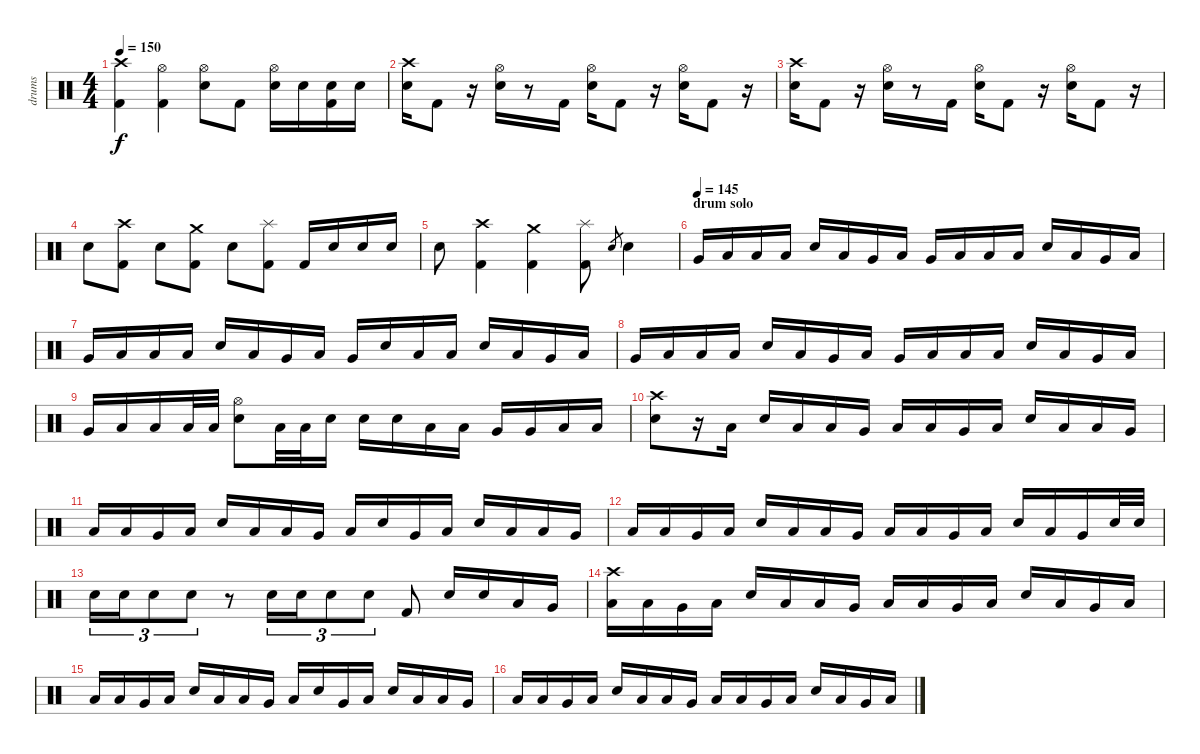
\track ("drums" "drums") {instrument percussion}
\staff {score}
\articulation defaults
\ts (4 4)
\tempo 150
\clef neutral
\ks c
("Crash high (hit)" "Kick (hit) 2").4{dy f} ("Hi-Hat (open)" "Kick (hit) 2").4 ("Hi-Hat (open)" "Electric Snare (hit)").8 "Kick (hit) 2".8 ("Hi-Hat (open)" "Electric Snare (hit)").16 "Electric Snare (hit)".16 ("Electric Snare (hit)" "Kick (hit) 2").16 "Electric Snare (hit)".16 |
("Crash high (hit)" "Electric Snare (hit)").16 "Kick (hit) 2".8 r.16 ("Hi-Hat (open)" "Electric Snare (hit)").16 r.8 "Kick (hit) 2".16 ("Hi-Hat (open)" "Electric Snare (hit)").16 "Kick (hit) 2".8 r.16 ("Hi-Hat (open)" "Electric Snare (hit)").16 "Kick (hit) 2".8 r.16 |
("Crash high (hit)" "Electric Snare (hit)").16 "Kick (hit) 2".8 r.16 ("Hi-Hat (open)" "Electric Snare (hit)").16 r.8 "Kick (hit) 2".16 ("Hi-Hat (open)" "Electric Snare (hit)").16 "Kick (hit) 2".8 r.16 ("Hi-Hat (open)" "Electric Snare (hit)").16 "Kick (hit) 2".8 r.16 |
"Electric Snare (hit)".8 ("Crash high (hit)" "Kick (hit) 2").8 "Electric Snare (hit)".8 ("Crash medium (hit)" "Kick (hit) 2").8 "Electric Snare (hit)".8 ("Splash (hit)" "Kick (hit) 2").8 "Kick (hit) 2".16 "Electric Snare (hit)".16 "Electric Snare (hit)".16 "Electric Snare (hit)".16 |
"Electric Snare (hit)".8 ("Crash high (hit)" "Kick (hit) 2").4 ("Crash medium (hit)" "Kick (hit) 2").4 ("Splash (hit)" "Kick (hit) 2").8 "Electric Snare (hit)".8{gr} "Electric Snare (hit)".4 |
\section ("" "drum solo")
\tempo (145)
"Very Low Tom (hit)".16 "Low Tom (hit)".16 "Low Floor Tom (hit)".16 "Low Tom (hit)".16 "Electric Snare (hit)".16 "Low Floor Tom (hit)".16 "Very Low Tom (hit)".16 "Low Tom (hit)".16 "Very Low Tom (hit)".16 "Low Tom (hit)".16 "Low Floor Tom (hit)".16 "Low Tom (hit)".16 "Electric Snare (hit)".16 "Low Floor Tom (hit)".16 "Very Low Tom (hit)".16 "Low Tom (hit)".16 |
"Very Low Tom (hit)".16 "Low Tom (hit)".16 "Low Floor Tom (hit)".16 "Low Tom (hit)".16 "Electric Snare (hit)".16 "Low Floor Tom (hit)".16 "Very Low Tom (hit)".16 "Low Tom (hit)".16 "Very Low Tom (hit)".16 "Electric Snare (hit)".16 "Low Floor Tom (hit)".16 "Low Tom (hit)".16 "Electric Snare (hit)".16 "Low Floor Tom (hit)".16 "Very Low Tom (hit)".16 "Low Tom (hit)".16 |
"Very Low Tom (hit)".16 "Low Tom (hit)".16 "Low Floor Tom (hit)".16 "Low Tom (hit)".16 "Electric Snare (hit)".16 "Low Floor Tom (hit)".16 "Very Low Tom (hit)".16 "Low Tom (hit)".16 "Very Low Tom (hit)".16 "Low Tom (hit)".16 "Low Floor Tom (hit)".16 "Low Tom (hit)".16 "Electric Snare (hit)".16 "Low Floor Tom (hit)".16 "Very Low Tom (hit)".16 "Low Tom (hit)".16 |
"Very Low Tom (hit)".16 "Low Tom (hit)".16 "Low Floor Tom (hit)".16 "Low Tom (hit)".32 "Low Tom (hit)".32 ("Hi-Hat (open)" "Electric Snare (hit)").8 "Low Tom (hit)".32 "Low Tom (hit)".32 "Electric Snare (hit)".16 "Electric Snare (hit)".16 "Electric Snare (hit)".16 "Low Tom (hit)".16 "Low Tom (hit)".16 "Very Low Tom (hit)".16 "Very Low Tom (hit)".16 "Low Floor Tom (hit)".16 "Low Floor Tom (hit)".16 |
("Crash high (hit)" "Electric Snare (hit)").8 r.16 "Low Floor Tom (hit)".16 "Electric Snare (hit)".16 "Low Floor Tom (hit)".16 "Low Tom (hit)".16 "Very Low Tom (hit)".16 "Low Tom (hit)".16 "Low Floor Tom (hit)".16 "Very Low Tom (hit)".16 "Low Floor Tom (hit)".16 "Electric Snare (hit)".16 "Low Floor Tom (hit)".16 "Low Tom (hit)".16 "Very Low Tom (hit)".16 |
"Low Floor Tom (hit)".16 "Low Tom (hit)".16 "Very Low Tom (hit)".16 "Low Floor Tom (hit)".16 "Electric Snare (hit)".16 "Low Floor Tom (hit)".16 "Low Tom (hit)".16 "Very Low Tom (hit)".16 "Low Tom (hit)".16 "Electric Snare (hit)".16 "Very Low Tom (hit)".16 "Low Floor Tom (hit)".16 "Electric Snare (hit)".16 "Low Floor Tom (hit)".16 "Low Tom (hit)".16 "Very Low Tom (hit)".16 |
"Low Floor Tom (hit)".16 "Low Tom (hit)".16 "Very Low Tom (hit)".16 "Low Floor Tom (hit)".16 "Electric Snare (hit)".16 "Low Floor Tom (hit)".16 "Low Tom (hit)".16 "Very Low Tom (hit)".16 "Low Tom (hit)".16 "Low Floor Tom (hit)".16 "Very Low Tom (hit)".16 "Low Floor Tom (hit)".16 "Electric Snare (hit)".16 "Low Floor Tom (hit)".16 "Very Low Tom (hit)".16 "Electric Snare (hit)".32 "Electric Snare (hit)".32 |
"Electric Snare (hit)".16{tu (3 2)} "Electric Snare (hit)".16{tu (3 2)} "Electric Snare (hit)".8{tu (3 2)} "Electric Snare (hit)".8{tu (3 2)} r.8 "Electric Snare (hit)".16{tu (3 2)} "Electric Snare (hit)".16{tu (3 2)} "Electric Snare (hit)".8{tu (3 2)} "Electric Snare (hit)".8{tu (3 2)} "Kick (hit) 2".8 "Electric Snare (hit)".16 "Electric Snare (hit)".16 "Low Tom (hit)".16 "Very Low Tom (hit)".16 |
("Crash high (hit)" "Low Floor Tom (hit)").16 "Low Tom (hit)".16 "Very Low Tom (hit)".16 "Low Floor Tom (hit)".16 "Electric Snare (hit)".16 "Low Floor Tom (hit)".16 "Low Tom (hit)".16 "Very Low Tom (hit)".16 "Low Tom (hit)".16 "Low Floor Tom (hit)".16 "Very Low Tom (hit)".16 "Low Floor Tom (hit)".16 "Electric Snare (hit)".16 "Low Floor Tom (hit)".16 "Very Low Tom (hit)".16 "Low Tom (hit)".16 |
"Low Floor Tom (hit)".16 "Low Tom (hit)".16 "Very Low Tom (hit)".16 "Low Floor Tom (hit)".16 "Electric Snare (hit)".16 "Low Floor Tom (hit)".16 "Low Tom (hit)".16 "Very Low Tom (hit)".16 "Low Tom (hit)".16 "Electric Snare (hit)".16 "Very Low Tom (hit)".16 "Low Floor Tom (hit)".16 "Electric Snare (hit)".16 "Low Floor Tom (hit)".16 "Low Tom (hit)".16 "Very Low Tom (hit)".16 |
"Low Floor Tom (hit)".16 "Low Tom (hit)".16 "Very Low Tom (hit)".16 "Low Floor Tom (hit)".16 "Electric Snare (hit)".16 "Low Floor Tom (hit)".16 "Low Tom (hit)".16 "Very Low Tom (hit)".16 "Low Tom (hit)".16 "Low Floor Tom (hit)".16 "Very Low Tom (hit)".16 "Low Floor Tom (hit)".16 "Electric Snare (hit)".16 "Low Floor Tom (hit)".16 "Very Low Tom (hit)".16 "Low Tom (hit)".16
